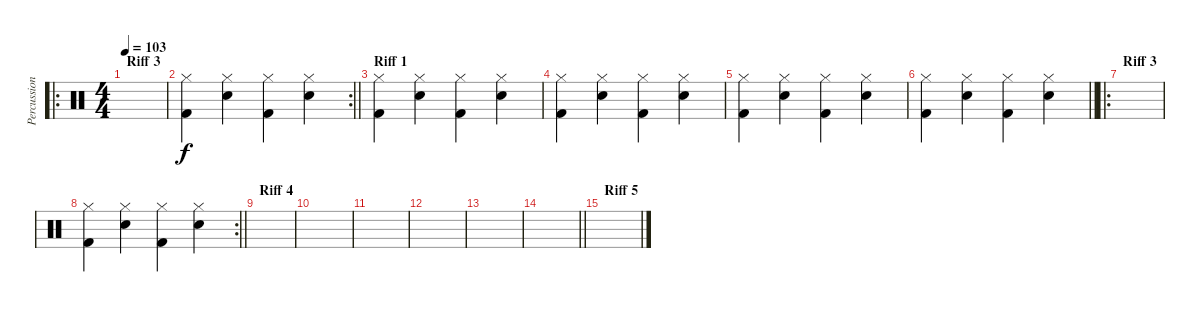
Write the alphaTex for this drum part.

\track ("Percussion" "Percussion") {instrument percussion}
\staff {score}
\articulation defaults
\ro
\ts (4 4)
\section ("" "Riff 3")
\tempo 103
\clef neutral
\ks c
|
\rc 2
\barLineRight lightlight
("Hi-Hat (closed)" "Kick (hit) 2").4 ("Hi-Hat (closed)" "Electric Snare (hit)").4 ("Hi-Hat (closed)" "Kick (hit) 2").4 ("Hi-Hat (closed)" "Electric Snare (hit)").4 |
\section ("" "Riff 1")
("Hi-Hat (closed)" "Kick (hit) 2").4 ("Hi-Hat (closed)" "Electric Snare (hit)").4 ("Hi-Hat (closed)" "Kick (hit) 2").4 ("Hi-Hat (closed)" "Electric Snare (hit)").4 |
("Hi-Hat (closed)" "Kick (hit) 2").4 ("Hi-Hat (closed)" "Electric Snare (hit)").4 ("Hi-Hat (closed)" "Kick (hit) 2").4 ("Hi-Hat (closed)" "Electric Snare (hit)").4 |
("Hi-Hat (closed)" "Kick (hit) 2").4 ("Hi-Hat (closed)" "Electric Snare (hit)").4 ("Hi-Hat (closed)" "Kick (hit) 2").4 ("Hi-Hat (closed)" "Electric Snare (hit)").4 |
\barLineRight lightlight
("Hi-Hat (closed)" "Kick (hit) 2").4 ("Hi-Hat (closed)" "Electric Snare (hit)").4 ("Hi-Hat (closed)" "Kick (hit) 2").4 ("Hi-Hat (closed)" "Electric Snare (hit)").4 |
\ro
\section ("" "Riff 3")
|
\rc 2
\barLineRight lightlight
("Hi-Hat (closed)" "Kick (hit) 2").4 ("Hi-Hat (closed)" "Electric Snare (hit)").4 ("Hi-Hat (closed)" "Kick (hit) 2").4 ("Hi-Hat (closed)" "Electric Snare (hit)").4 |
\section ("" "Riff 4")
|
|
|
|
|
\barLineRight lightlight
|
\section ("" "Riff 5")
